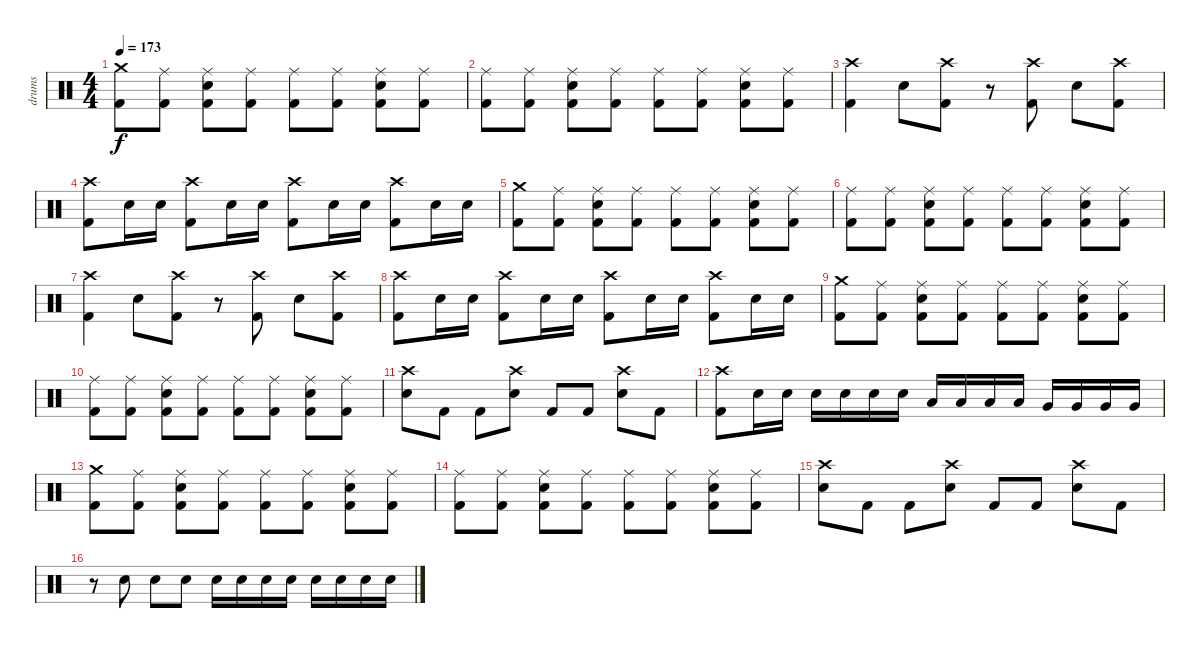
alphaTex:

\track ("drums" "drums") {instrument percussion}
\staff {score}
\articulation defaults
\ts (4 4)
\tempo 173
\clef neutral
\ks c
("Crash medium (hit)" "Kick (hit) 2").8{dy f} ("Ride (middle)" "Kick (hit) 2").8 ("Ride (middle)" "Electric Snare (hit)" "Kick (hit) 2").8 ("Ride (middle)" "Kick (hit) 2").8 ("Ride (middle)" "Kick (hit) 2").8 ("Ride (middle)" "Kick (hit) 2").8 ("Ride (middle)" "Electric Snare (hit)" "Kick (hit) 2").8 ("Ride (middle)" "Kick (hit) 2").8 |
("Ride (middle)" "Kick (hit) 2").8 ("Ride (middle)" "Kick (hit) 2").8 ("Ride (middle)" "Electric Snare (hit)" "Kick (hit) 2").8 ("Ride (middle)" "Kick (hit) 2").8 ("Ride (middle)" "Kick (hit) 2").8 ("Ride (middle)" "Kick (hit) 2").8 ("Ride (middle)" "Electric Snare (hit)" "Kick (hit) 2").8 ("Ride (middle)" "Kick (hit) 2").8 |
("Crash high (hit)" "Kick (hit) 2").4 "Electric Snare (hit)".8 ("Crash high (hit)" "Kick (hit) 2").8 r.8 ("Crash high (hit)" "Kick (hit) 2").8 "Electric Snare (hit)".8 ("Crash high (hit)" "Kick (hit) 2").8 |
("Crash high (hit)" "Kick (hit) 2").8 "Electric Snare (hit)".16 "Electric Snare (hit)".16 ("Crash high (hit)" "Kick (hit) 2").8 "Electric Snare (hit)".16 "Electric Snare (hit)".16 ("Crash high (hit)" "Kick (hit) 2").8 "Electric Snare (hit)".16 "Electric Snare (hit)".16 ("Crash high (hit)" "Kick (hit) 2").8 "Electric Snare (hit)".16 "Electric Snare (hit)".16 |
("Crash medium (hit)" "Kick (hit) 2").8 ("Ride (middle)" "Kick (hit) 2").8 ("Ride (middle)" "Electric Snare (hit)" "Kick (hit) 2").8 ("Ride (middle)" "Kick (hit) 2").8 ("Ride (middle)" "Kick (hit) 2").8 ("Ride (middle)" "Kick (hit) 2").8 ("Ride (middle)" "Electric Snare (hit)" "Kick (hit) 2").8 ("Ride (middle)" "Kick (hit) 2").8 |
("Ride (middle)" "Kick (hit) 2").8 ("Ride (middle)" "Kick (hit) 2").8 ("Ride (middle)" "Electric Snare (hit)" "Kick (hit) 2").8 ("Ride (middle)" "Kick (hit) 2").8 ("Ride (middle)" "Kick (hit) 2").8 ("Ride (middle)" "Kick (hit) 2").8 ("Ride (middle)" "Electric Snare (hit)" "Kick (hit) 2").8 ("Ride (middle)" "Kick (hit) 2").8 |
("Crash high (hit)" "Kick (hit) 2").4 "Electric Snare (hit)".8 ("Crash high (hit)" "Kick (hit) 2").8 r.8 ("Crash high (hit)" "Kick (hit) 2").8 "Electric Snare (hit)".8 ("Crash high (hit)" "Kick (hit) 2").8 |
("Crash high (hit)" "Kick (hit) 2").8 "Electric Snare (hit)".16 "Electric Snare (hit)".16 ("Crash high (hit)" "Kick (hit) 2").8 "Electric Snare (hit)".16 "Electric Snare (hit)".16 ("Crash high (hit)" "Kick (hit) 2").8 "Electric Snare (hit)".16 "Electric Snare (hit)".16 ("Crash high (hit)" "Kick (hit) 2").8 "Electric Snare (hit)".16 "Electric Snare (hit)".16 |
("Crash medium (hit)" "Kick (hit) 2").8 ("Ride (middle)" "Kick (hit) 2").8 ("Ride (middle)" "Electric Snare (hit)" "Kick (hit) 2").8 ("Ride (middle)" "Kick (hit) 2").8 ("Ride (middle)" "Kick (hit) 2").8 ("Ride (middle)" "Kick (hit) 2").8 ("Ride (middle)" "Electric Snare (hit)" "Kick (hit) 2").8 ("Ride (middle)" "Kick (hit) 2").8 |
("Ride (middle)" "Kick (hit) 2").8 ("Ride (middle)" "Kick (hit) 2").8 ("Ride (middle)" "Electric Snare (hit)" "Kick (hit) 2").8 ("Ride (middle)" "Kick (hit) 2").8 ("Ride (middle)" "Kick (hit) 2").8 ("Ride (middle)" "Kick (hit) 2").8 ("Ride (middle)" "Electric Snare (hit)" "Kick (hit) 2").8 ("Ride (middle)" "Kick (hit) 2").8 |
("Crash high (hit)" "Electric Snare (hit)").8 "Kick (hit) 2".8 "Kick (hit) 2".8 ("Crash high (hit)" "Electric Snare (hit)").8 "Kick (hit) 2".8 "Kick (hit) 2".8 ("Crash high (hit)" "Electric Snare (hit)").8 "Kick (hit) 2".8 |
("Crash high (hit)" "Kick (hit) 2").8 "Electric Snare (hit)".16 "Electric Snare (hit)".16 "Electric Snare (hit)".16 "Electric Snare (hit)".16 "Electric Snare (hit)".16 "Electric Snare (hit)".16 "Low Tom (hit)".16 "Low Tom (hit)".16 "Low Tom (hit)".16 "Low Tom (hit)".16 "Very Low Tom (hit)".16 "Very Low Tom (hit)".16 "Very Low Tom (hit)".16 "Very Low Tom (hit)".16 |
("Crash medium (hit)" "Kick (hit) 2").8 ("Ride (middle)" "Kick (hit) 2").8 ("Ride (middle)" "Electric Snare (hit)" "Kick (hit) 2").8 ("Ride (middle)" "Kick (hit) 2").8 ("Ride (middle)" "Kick (hit) 2").8 ("Ride (middle)" "Kick (hit) 2").8 ("Ride (middle)" "Electric Snare (hit)" "Kick (hit) 2").8 ("Ride (middle)" "Kick (hit) 2").8 |
("Ride (middle)" "Kick (hit) 2").8 ("Ride (middle)" "Kick (hit) 2").8 ("Ride (middle)" "Electric Snare (hit)" "Kick (hit) 2").8 ("Ride (middle)" "Kick (hit) 2").8 ("Ride (middle)" "Kick (hit) 2").8 ("Ride (middle)" "Kick (hit) 2").8 ("Ride (middle)" "Electric Snare (hit)" "Kick (hit) 2").8 ("Ride (middle)" "Kick (hit) 2").8 |
("Crash high (hit)" "Electric Snare (hit)").8 "Kick (hit) 2".8 "Kick (hit) 2".8 ("Crash high (hit)" "Electric Snare (hit)").8 "Kick (hit) 2".8 "Kick (hit) 2".8 ("Crash high (hit)" "Electric Snare (hit)").8 "Kick (hit) 2".8 |
r.8 "Electric Snare (hit)".8 "Electric Snare (hit)".8 "Electric Snare (hit)".8 "Electric Snare (hit)".16 "Electric Snare (hit)".16 "Electric Snare (hit)".16 "Electric Snare (hit)".16 "Electric Snare (hit)".16 "Electric Snare (hit)".16 "Electric Snare (hit)".16 "Electric Snare (hit)".16
